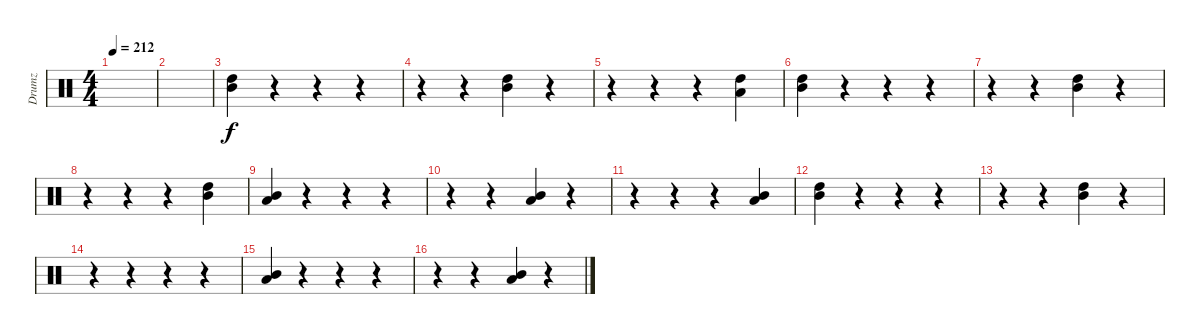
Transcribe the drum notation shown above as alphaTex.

\track ("Drumz" "Drumz") {instrument percussion}
\staff {score}
\articulation defaults
\ts (4 4)
\tempo 212
\clef neutral
\ks c
|
|
("High Tom (hit)" "Mid Tom (hit)").4 r.4 r.4 r.4 |
r.4 r.4 ("High Tom (hit)" "Mid Tom (hit)").4 r.4 |
r.4 r.4 r.4 ("High Tom (hit)" "Low Tom (hit)").4 |
("High Tom (hit)" "Mid Tom (hit)").4 r.4 r.4 r.4 |
r.4 r.4 ("High Tom (hit)" "Mid Tom (hit)").4 r.4 |
r.4 r.4 r.4 ("High Tom (hit)" "Mid Tom (hit)").4 |
("Mid Tom (hit)" "Low Tom (hit)").4 r.4 r.4 r.4 |
r.4 r.4 ("Mid Tom (hit)" "Low Tom (hit)").4 r.4 |
r.4 r.4 r.4 ("Mid Tom (hit)" "Low Tom (hit)").4 |
("High Tom (hit)" "Mid Tom (hit)").4 r.4 r.4 r.4 |
r.4 r.4 ("High Tom (hit)" "Mid Tom (hit)").4 r.4 |
r.4 r.4 r.4 r.4 |
("Mid Tom (hit)" "Low Tom (hit)").4 r.4 r.4 r.4 |
r.4 r.4 ("Mid Tom (hit)" "Low Tom (hit)").4 r.4
